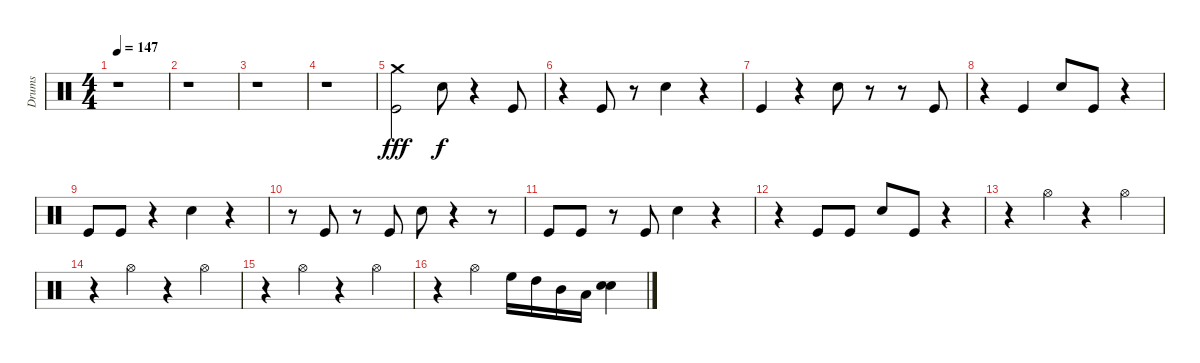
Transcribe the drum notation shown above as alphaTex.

\track ("Drums" "Drums") {instrument percussion}
\staff {score}
\articulation defaults
\ts (4 4)
\tempo 147
\clef neutral
\ks c
r.1{dy fff} |
r.1 |
r.1 |
r.1 |
("Crash medium (hit)" "Kick (hit)").2 "Electric Snare (hit)".8{dy f} r.4 "Kick (hit)".8 |
r.4 "Kick (hit)".8 r.8 "Electric Snare (hit)".4 r.4 |
"Kick (hit)".4 r.4 "Electric Snare (hit)".8 r.8 r.8 "Kick (hit)".8 |
r.4 "Kick (hit)".4 "Electric Snare (hit)".8 "Kick (hit)".8 r.4 |
"Kick (hit)".8 "Kick (hit)".8 r.4 "Electric Snare (hit)".4 r.4 |
r.8 "Kick (hit)".8 r.8 "Kick (hit)".8 "Electric Snare (hit)".8 r.4 r.8 |
"Kick (hit)".8 "Kick (hit)".8 r.8 "Kick (hit)".8 "Electric Snare (hit)".4 r.4 |
r.4 "Kick (hit)".8 "Kick (hit)".8 "Electric Snare (hit)".8 "Kick (hit)".8 r.4 |
r.4 "Hi-Hat (open)".4 r.4 "Hi-Hat (open)".4 |
r.4 "Hi-Hat (open)".4 r.4 "Hi-Hat (open)".4 |
r.4 "Hi-Hat (open)".4 r.4 "Hi-Hat (open)".4 |
r.4 "Hi-Hat (open)".4 "High Floor Tom (hit)".16 "High Tom (hit)".16 "Mid Tom (hit)".16 "Low Tom (hit)".16 ("Electric Snare (hit)" "Snare (hit) 2").4
